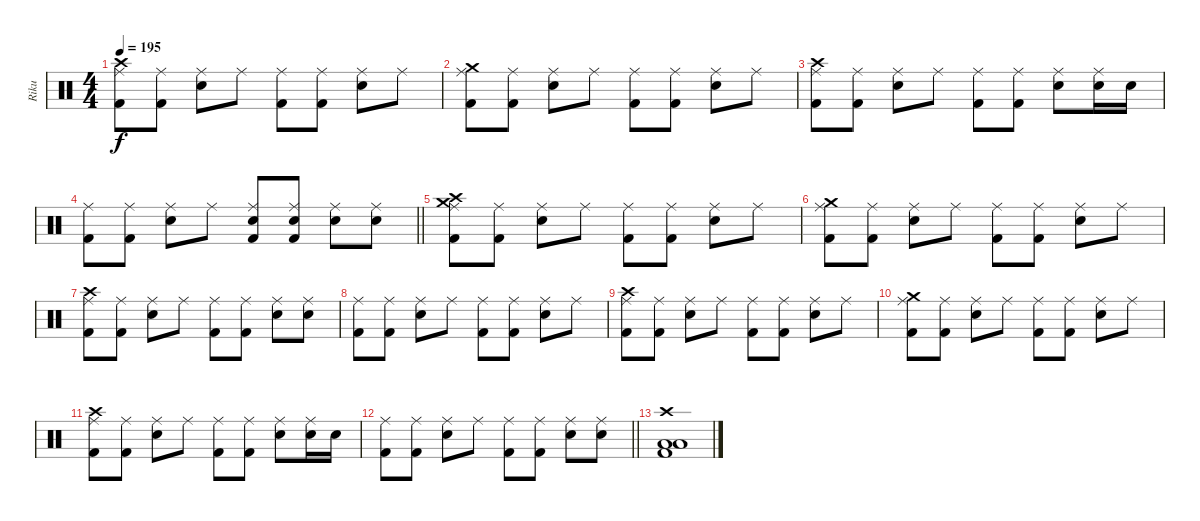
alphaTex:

\track ("Riku" "Riku") {instrument percussion}
\staff {score}
\articulation defaults
\ts (4 4)
\tempo 195
\clef neutral
\ks c
("Kick (hit) 2" "Crash high (hit)" "Ride (middle)").8{dy f} ("Kick (hit) 2" "Ride (middle)").8 ("Snare (hit) 2" "Ride (middle)").8 "Ride (middle)".8 ("Kick (hit) 2" "Ride (middle)").8 ("Kick (hit) 2" "Ride (middle)").8 ("Snare (hit) 2" "Ride (middle)").8 "Ride (middle)".8 |
("Kick (hit) 2" "Crash medium (hit)" "Ride (middle)").8 ("Kick (hit) 2" "Ride (middle)").8 ("Snare (hit) 2" "Ride (middle)").8 "Ride (middle)".8 ("Kick (hit) 2" "Ride (middle)").8 ("Kick (hit) 2" "Ride (middle)").8 ("Snare (hit) 2" "Ride (middle)").8 "Ride (middle)".8 |
("Kick (hit) 2" "Crash high (hit)" "Ride (middle)").8 ("Kick (hit) 2" "Ride (middle)").8 ("Snare (hit) 2" "Ride (middle)").8 "Ride (middle)".8 ("Kick (hit) 2" "Ride (middle)").8 ("Kick (hit) 2" "Ride (middle)").8 ("Snare (hit) 2" "Ride (middle)").8 ("Snare (hit) 2" "Ride (middle)").16 "Snare (hit) 2".16 |
\barLineRight lightlight
("Kick (hit) 2" "Ride (middle)").8 ("Kick (hit) 2" "Ride (middle)").8 ("Snare (hit) 2" "Ride (middle)").8 "Ride (middle)".8 ("Snare (hit) 2" "Kick (hit) 2" "Ride (middle)").8 ("Snare (hit) 2" "Kick (hit) 2" "Ride (middle)").8 ("Snare (hit) 2" "Ride (middle)").8 ("Snare (hit) 2" "Ride (middle)").8 |
("Crash medium (hit)" "Kick (hit) 2" "Crash high (hit)" "Ride (middle)").8 ("Kick (hit) 2" "Ride (middle)").8 ("Snare (hit) 2" "Ride (middle)").8 "Ride (middle)".8 ("Kick (hit) 2" "Ride (middle)").8 ("Kick (hit) 2" "Ride (middle)").8 ("Snare (hit) 2" "Ride (middle)").8 "Ride (middle)".8 |
("Kick (hit) 2" "Crash medium (hit)" "Ride (middle)").8 ("Kick (hit) 2" "Ride (middle)").8 ("Snare (hit) 2" "Ride (middle)").8 "Ride (middle)".8 ("Kick (hit) 2" "Ride (middle)").8 ("Kick (hit) 2" "Ride (middle)").8 ("Snare (hit) 2" "Ride (middle)").8 "Ride (middle)".8 |
("Kick (hit) 2" "Crash high (hit)" "Ride (middle)").8 ("Kick (hit) 2" "Ride (middle)").8 ("Snare (hit) 2" "Ride (middle)").8 "Ride (middle)".8 ("Kick (hit) 2" "Ride (middle)").8 ("Kick (hit) 2" "Ride (middle)").8 ("Snare (hit) 2" "Ride (middle)").8 ("Snare (hit) 2" "Ride (middle)").8 |
("Kick (hit) 2" "Ride (middle)").8 ("Kick (hit) 2" "Ride (middle)").8 ("Snare (hit) 2" "Ride (middle)").8 "Ride (middle)".8 ("Kick (hit) 2" "Ride (middle)").8 ("Kick (hit) 2" "Ride (middle)").8 ("Snare (hit) 2" "Ride (middle)").8 "Ride (middle)".8 |
("Kick (hit) 2" "Crash high (hit)" "Ride (middle)").8 ("Kick (hit) 2" "Ride (middle)").8 ("Snare (hit) 2" "Ride (middle)").8 "Ride (middle)".8 ("Kick (hit) 2" "Ride (middle)").8 ("Kick (hit) 2" "Ride (middle)").8 ("Snare (hit) 2" "Ride (middle)").8 "Ride (middle)".8 |
("Kick (hit) 2" "Crash medium (hit)" "Ride (middle)").8 ("Kick (hit) 2" "Ride (middle)").8 ("Snare (hit) 2" "Ride (middle)").8 "Ride (middle)".8 ("Kick (hit) 2" "Ride (middle)").8 ("Kick (hit) 2" "Ride (middle)").8 ("Snare (hit) 2" "Ride (middle)").8 "Ride (middle)".8 |
("Kick (hit) 2" "Crash high (hit)" "Ride (middle)").8 ("Kick (hit) 2" "Ride (middle)").8 ("Snare (hit) 2" "Ride (middle)").8 "Ride (middle)".8 ("Kick (hit) 2" "Ride (middle)").8 ("Kick (hit) 2" "Ride (middle)").8 ("Snare (hit) 2" "Ride (middle)").8 ("Snare (hit) 2" "Ride (middle)").16 "Snare (hit) 2".16 |
\barLineRight lightlight
("Kick (hit) 2" "Ride (middle)").8 ("Kick (hit) 2" "Ride (middle)").8 ("Snare (hit) 2" "Ride (middle)").8 "Ride (middle)".8 ("Kick (hit) 2" "Ride (middle)").8 ("Kick (hit) 2" "Ride (middle)").8 ("Snare (hit) 2" "Ride (middle)").8 ("Snare (hit) 2" "Ride (middle)").8 |
("Kick (hit) 2" "Crash high (hit)" "Low Tom (hit)" "Low Floor Tom (hit)").1
